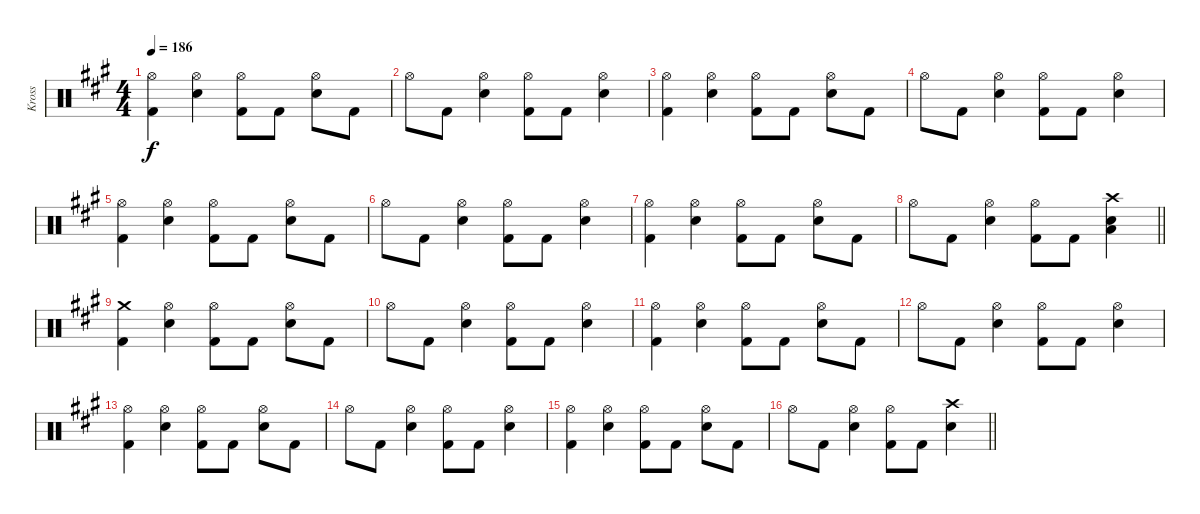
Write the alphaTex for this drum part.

\track ("Kross" "Kross") {instrument percussion}
\staff {score}
\articulation defaults
\ts (4 4)
\tempo 186
\clef neutral
\ks a
("Hi-Hat (open)" "Kick (hit) 2").4{dy f} ("Hi-Hat (open)" "Electric Snare (hit)").4 ("Hi-Hat (open)" "Kick (hit) 2").8 "Kick (hit) 2".8 ("Hi-Hat (open)" "Electric Snare (hit)").8 "Kick (hit) 2".8 |
"Hi-Hat (open)".8 "Kick (hit) 2".8 ("Hi-Hat (open)" "Electric Snare (hit)").4 ("Hi-Hat (open)" "Kick (hit) 2").8 "Kick (hit) 2".8 ("Hi-Hat (open)" "Electric Snare (hit)").4 |
("Hi-Hat (open)" "Kick (hit) 2").4 ("Hi-Hat (open)" "Electric Snare (hit)").4 ("Hi-Hat (open)" "Kick (hit) 2").8 "Kick (hit) 2".8 ("Hi-Hat (open)" "Electric Snare (hit)").8 "Kick (hit) 2".8 |
"Hi-Hat (open)".8 "Kick (hit) 2".8 ("Hi-Hat (open)" "Electric Snare (hit)").4 ("Hi-Hat (open)" "Kick (hit) 2").8 "Kick (hit) 2".8 ("Hi-Hat (open)" "Electric Snare (hit)").4 |
("Hi-Hat (open)" "Kick (hit) 2").4 ("Hi-Hat (open)" "Electric Snare (hit)").4 ("Hi-Hat (open)" "Kick (hit) 2").8 "Kick (hit) 2".8 ("Hi-Hat (open)" "Electric Snare (hit)").8 "Kick (hit) 2".8 |
"Hi-Hat (open)".8 "Kick (hit) 2".8 ("Hi-Hat (open)" "Electric Snare (hit)").4 ("Hi-Hat (open)" "Kick (hit) 2").8 "Kick (hit) 2".8 ("Hi-Hat (open)" "Electric Snare (hit)").4 |
("Hi-Hat (open)" "Kick (hit) 2").4 ("Hi-Hat (open)" "Electric Snare (hit)").4 ("Hi-Hat (open)" "Kick (hit) 2").8 "Kick (hit) 2".8 ("Hi-Hat (open)" "Electric Snare (hit)").8 "Kick (hit) 2".8 |
\barLineRight lightlight "Hi-Hat (open)".8 "Kick (hit) 2".8
("Hi-Hat (open)" "Electric Snare (hit)").4 ("Hi-Hat (open)" "Kick (hit) 2").8 "Kick (hit) 2".8 ("Crash high (hit)" "Electric Snare (hit)" "Low Floor Tom (hit)").4 |
("Crash medium (hit)" "Kick (hit) 2").4 ("Hi-Hat (open)" "Electric Snare (hit)").4 ("Hi-Hat (open)" "Kick (hit) 2").8 "Kick (hit) 2".8 ("Hi-Hat (open)" "Electric Snare (hit)").8 "Kick (hit) 2".8 |
"Hi-Hat (open)".8 "Kick (hit) 2".8 ("Hi-Hat (open)" "Electric Snare (hit)").4 ("Hi-Hat (open)" "Kick (hit) 2").8 "Kick (hit) 2".8 ("Hi-Hat (open)" "Electric Snare (hit)").4 |
("Hi-Hat (open)" "Kick (hit) 2").4 ("Hi-Hat (open)" "Electric Snare (hit)").4 ("Hi-Hat (open)" "Kick (hit) 2").8 "Kick (hit) 2".8 ("Hi-Hat (open)" "Electric Snare (hit)").8 "Kick (hit) 2".8 |
"Hi-Hat (open)".8 "Kick (hit) 2".8 ("Hi-Hat (open)" "Electric Snare (hit)").4 ("Hi-Hat (open)" "Kick (hit) 2").8 "Kick (hit) 2".8 ("Hi-Hat (open)" "Electric Snare (hit)").4 |
("Hi-Hat (open)" "Kick (hit) 2").4 ("Hi-Hat (open)" "Electric Snare (hit)").4 ("Hi-Hat (open)" "Kick (hit) 2").8 "Kick (hit) 2".8 ("Hi-Hat (open)" "Electric Snare (hit)").8 "Kick (hit) 2".8 |
"Hi-Hat (open)".8 "Kick (hit) 2".8 ("Hi-Hat (open)" "Electric Snare (hit)").4 ("Hi-Hat (open)" "Kick (hit) 2").8 "Kick (hit) 2".8 ("Hi-Hat (open)" "Electric Snare (hit)").4 |
("Hi-Hat (open)" "Kick (hit) 2").4 ("Hi-Hat (open)" "Electric Snare (hit)").4 ("Hi-Hat (open)" "Kick (hit) 2").8 "Kick (hit) 2".8 ("Hi-Hat (open)" "Electric Snare (hit)").8 "Kick (hit) 2".8 |
\barLineRight lightlight "Hi-Hat (open)".8 "Kick (hit) 2".8
("Hi-Hat (open)" "Electric Snare (hit)").4 ("Hi-Hat (open)" "Kick (hit) 2").8 "Kick (hit) 2".8 ("Crash high (hit)" "Electric Snare (hit)").4
